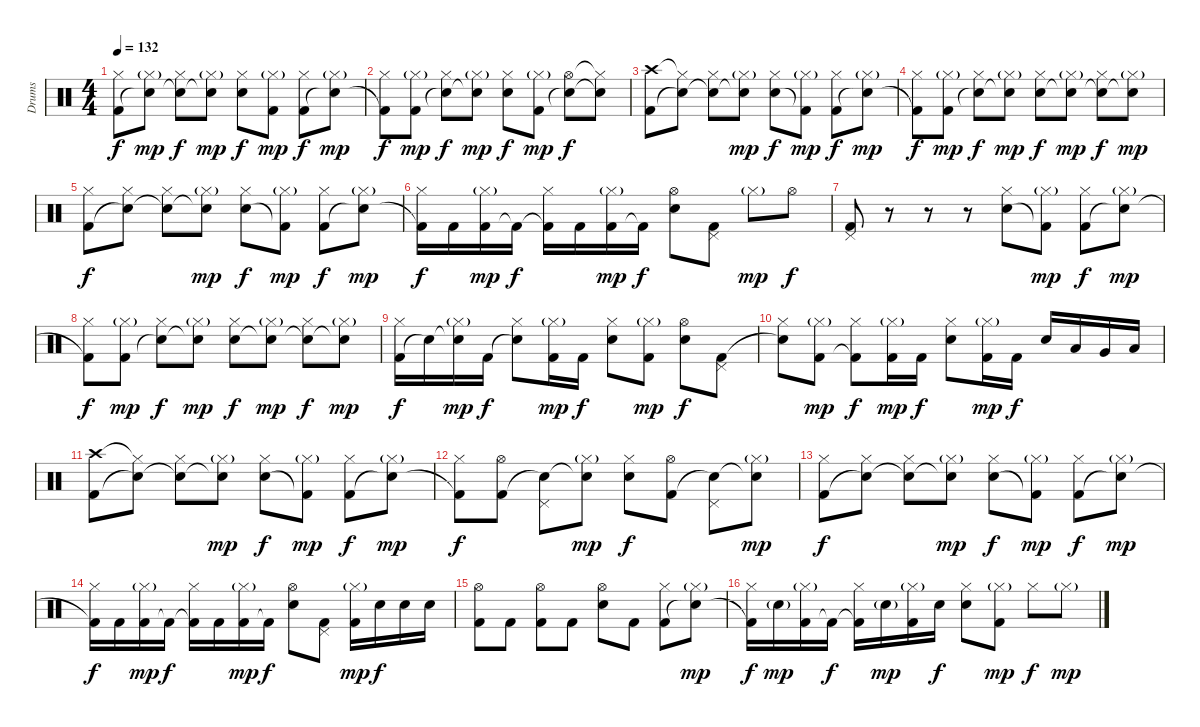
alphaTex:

\track ("Drums" "Drums") {instrument percussion}
\staff {score}
\articulation defaults
\ts (4 4)
\tempo 132
\clef neutral
\ks c
("Kick (hit) 2" "Hi-Hat (closed)").8{dy f} ("Snare (hit)"{t} "Hi-Hat (closed)"{g}).8{dy mp} ("Snare (hit)"{t} "Hi-Hat (closed)").8{dy f} ("Snare (hit) 2"{t} "Hi-Hat (closed)"{g}).8{dy mp} ("Electric Snare (hit)" "Hi-Hat (closed)").8{dy f} ("Kick (hit) 2" "Hi-Hat (closed)"{g}).8{dy mp} ("Kick (hit) 2" "Hi-Hat (closed)").8{dy f} ("Snare (hit)"{t} "Hi-Hat (closed)"{g}).8{dy mp} |
("Kick (hit) 2"{t} "Hi-Hat (closed)").8{dy f} ("Kick (hit) 2" "Hi-Hat (closed)"{g}).8{dy mp} ("Snare (hit)"{t} "Hi-Hat (closed)").8{dy f} ("Snare (hit)"{t} "Hi-Hat (closed)"{g}).8{dy mp} ("Electric Snare (hit)" "Hi-Hat (closed)").8{dy f} ("Kick (hit) 2" "Hi-Hat (closed)"{g}).8{dy mp} ("Snare (hit)"{t} "Hi-Hat (open)").8{dy f} ("Snare (hit)"{t} "Hi-Hat (closed)"{t}).8 |
("Kick (hit) 2" "Crash high (hit)").8 ("Snare (hit)"{t} "Hi-Hat (closed)"{t}).8 ("Snare (hit)"{t} "Hi-Hat (closed)").8 ("Snare (hit) 2"{t} "Hi-Hat (closed)"{g}).8{dy mp} ("Electric Snare (hit)" "Hi-Hat (closed)").8{dy f} ("Kick (hit) 2"{t} "Hi-Hat (closed)"{g}).8{dy mp} ("Kick (hit) 2" "Hi-Hat (closed)").8{dy f} ("Snare (hit)"{t} "Hi-Hat (closed)"{g}).8{dy mp} |
("Kick (hit) 2"{t} "Hi-Hat (closed)").8{dy f} ("Kick (hit) 2" "Hi-Hat (closed)"{g}).8{dy mp} ("Snare (hit)"{t} "Hi-Hat (closed)").8{dy f} ("Snare (hit)"{t} "Hi-Hat (closed)"{g}).8{dy mp} ("Electric Snare (hit)" "Hi-Hat (closed)").8{dy f} ("Snare (hit)"{t} "Hi-Hat (closed)"{g}).8{dy mp} ("Snare (hit)"{t} "Hi-Hat (closed)").8{dy f} ("Snare (hit)"{t} "Hi-Hat (closed)"{g}).8{dy mp} |
("Kick (hit) 2" "Hi-Hat (closed)").8{dy f} ("Snare (hit)"{t} "Hi-Hat (closed)").8 ("Snare (hit)"{t} "Hi-Hat (closed)").8 ("Snare (hit) 2"{t} "Hi-Hat (closed)"{g}).8{dy mp} ("Electric Snare (hit)" "Hi-Hat (closed)").8{dy f} ("Kick (hit) 2"{t} "Hi-Hat (closed)"{g}).8{dy mp} ("Kick (hit) 2" "Hi-Hat (closed)").8{dy f} ("Snare (hit)"{t} "Hi-Hat (closed)"{g}).8{dy mp} |
("Kick (hit) 2"{t} "Hi-Hat (closed)").16{dy f} "Kick (hit) 2".16 ("Kick (hit) 2" "Hi-Hat (closed)"{g}).16{dy mp} "Kick (hit) 2"{t}.16{dy f} ("Kick (hit) 2"{t} "Hi-Hat (closed)").16 "Kick (hit) 2".16 ("Kick (hit) 2" "Hi-Hat (closed)"{g}).16{dy mp} "Kick (hit) 2"{t}.16{dy f} ("Electric Snare (hit)" "Hi-Hat (open)").8 ("Kick (hit) 2" "Pedal Hi-Hat (hit)").8 "Hi-Hat (closed)"{g}.8{dy mp} "Hi-Hat (open)".8{dy f} |
("Kick (hit) 2" "Pedal Hi-Hat (hit)").8 r.8 r.8 r.8 ("Electric Snare (hit)" "Hi-Hat (closed)").8 ("Kick (hit) 2"{t} "Hi-Hat (closed)"{g}).8{dy mp} ("Kick (hit) 2" "Hi-Hat (closed)").8{dy f} ("Snare (hit)"{t} "Hi-Hat (closed)"{g}).8{dy mp} |
("Kick (hit) 2"{t} "Hi-Hat (closed)").8{dy f} ("Kick (hit) 2" "Hi-Hat (closed)"{g}).8{dy mp} ("Snare (hit)"{t} "Hi-Hat (closed)").8{dy f} ("Snare (hit)"{t} "Hi-Hat (closed)"{g}).8{dy mp} ("Electric Snare (hit)" "Hi-Hat (closed)").8{dy f} ("Snare (hit)"{t} "Hi-Hat (closed)"{g}).8{dy mp} ("Snare (hit)"{t} "Hi-Hat (closed)").8{dy f} ("Snare (hit)"{t} "Hi-Hat (closed)"{g}).8{dy mp} |
("Kick (hit) 2" "Hi-Hat (closed)").16{dy f} "Snare (hit)"{t}.16 ("Snare (hit)"{t} "Hi-Hat (closed)"{g}).16{dy mp} "Kick (hit) 2".16{dy f} ("Snare (hit)"{t} "Hi-Hat (closed)").8 ("Kick (hit) 2" "Hi-Hat (closed)"{g}).16{dy mp} "Kick (hit) 2".16{dy f} ("Electric Snare (hit)" "Hi-Hat (closed)").8 ("Kick (hit) 2" "Hi-Hat (closed)"{g}).8{dy mp} ("Electric Snare (hit)" "Hi-Hat (open)").8{dy f} ("Kick (hit) 2" "Pedal Hi-Hat (hit)").8 |
("Snare (hit)"{t} "Hi-Hat (closed)").8 ("Kick (hit) 2" "Hi-Hat (closed)"{g}).8{dy mp} ("Kick (hit) 2"{t} "Hi-Hat (closed)").8{dy f} ("Kick (hit) 2" "Hi-Hat (closed)"{g}).16{dy mp} "Kick (hit) 2".16{dy f} ("Electric Snare (hit)" "Hi-Hat (closed)").8 ("Kick (hit) 2" "Hi-Hat (closed)"{g}).16{dy mp} "Kick (hit) 2".16{dy f} "Electric Snare (hit)".16 "Low Tom (hit)".16 "Very Low Tom (hit)".16 "Low Floor Tom (hit)".16 |
("Kick (hit) 2" "Crash high (hit)").8 ("Snare (hit)"{t} "Hi-Hat (closed)"{t}).8 ("Snare (hit)"{t} "Hi-Hat (closed)").8 ("Snare (hit) 2"{t} "Hi-Hat (closed)"{g}).8{dy mp} ("Electric Snare (hit)" "Hi-Hat (closed)").8{dy f} ("Kick (hit) 2"{t} "Hi-Hat (closed)"{g}).8{dy mp} ("Kick (hit) 2" "Hi-Hat (closed)").8{dy f} ("Snare (hit)"{t} "Hi-Hat (closed)"{g}).8{dy mp} |
("Kick (hit) 2"{t} "Hi-Hat (closed)").8{dy f} ("Kick (hit) 2" "Hi-Hat (open)").8 ("Snare (hit)"{t} "Pedal Hi-Hat (hit)").8 ("Snare (hit)"{t} "Hi-Hat (closed)"{g}).8{dy mp} ("Electric Snare (hit)" "Hi-Hat (closed)").8{dy f} ("Kick (hit) 2" "Hi-Hat (open)").8 ("Snare (hit)"{t} "Pedal Hi-Hat (hit)").8 ("Snare (hit)"{t} "Hi-Hat (closed)"{g}).8{dy mp} |
("Kick (hit) 2" "Hi-Hat (closed)").8{dy f} ("Snare (hit)"{t} "Hi-Hat (closed)").8 ("Snare (hit)"{t} "Hi-Hat (closed)").8 ("Snare (hit) 2"{t} "Hi-Hat (closed)"{g}).8{dy mp} ("Electric Snare (hit)" "Hi-Hat (closed)").8{dy f} ("Kick (hit) 2"{t} "Hi-Hat (closed)"{g}).8{dy mp} ("Kick (hit) 2" "Hi-Hat (closed)").8{dy f} ("Snare (hit)"{t} "Hi-Hat (closed)"{g}).8{dy mp} |
("Kick (hit) 2"{t} "Hi-Hat (closed)").16{dy f} "Kick (hit) 2".16 ("Kick (hit) 2" "Hi-Hat (closed)"{g}).16{dy mp} "Kick (hit) 2"{t}.16{dy f} ("Kick (hit) 2"{t} "Hi-Hat (closed)").16 "Kick (hit) 2".16 ("Kick (hit) 2" "Hi-Hat (closed)"{g}).16{dy mp} "Kick (hit) 2"{t}.16{dy f} ("Electric Snare (hit)" "Hi-Hat (open)").8 ("Kick (hit) 2" "Pedal Hi-Hat (hit)").8 ("Kick (hit) 2" "Hi-Hat (closed)"{g}).16{dy mp} "Electric Snare (hit)".16{dy f} "Electric Snare (hit)".16 "Electric Snare (hit)".16 |
("Kick (hit) 2" "Hi-Hat (open)").8 "Kick (hit) 2".8 ("Kick (hit) 2" "Hi-Hat (open)").8 "Kick (hit) 2".8 ("Electric Snare (hit)" "Hi-Hat (open)").8 "Kick (hit) 2".8 ("Kick (hit) 2" "Hi-Hat (closed)").8 ("Snare (hit)"{t} "Hi-Hat (closed)"{g}).8{dy mp} |
("Kick (hit) 2"{t} "Hi-Hat (closed)").16{dy f} "Electric Snare (hit)"{g}.16{dy mp} ("Kick (hit) 2" "Hi-Hat (closed)"{g}).16 "Kick (hit) 2"{t}.16{dy f} ("Kick (hit) 2"{t} "Hi-Hat (closed)").16 "Electric Snare (hit)"{g}.16{dy mp} ("Kick (hit) 2" "Hi-Hat (closed)"{g}).16 "Electric Snare (hit)".16{dy f} ("Electric Snare (hit)" "Hi-Hat (closed)").8 ("Kick (hit) 2" "Hi-Hat (closed)"{g}).8{dy mp} "Hi-Hat (closed)".8{dy f} "Hi-Hat (closed)"{g}.8{dy mp}
